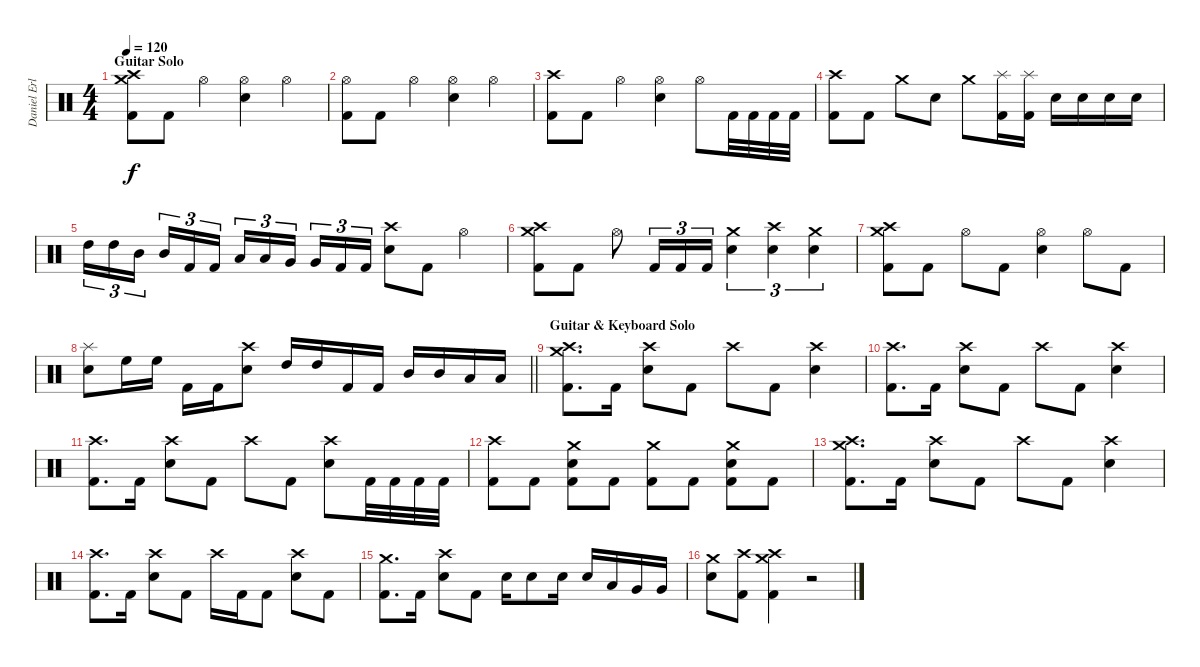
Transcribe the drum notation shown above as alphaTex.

\track ("Daniel Erlandson (Drums)" "Daniel Erl") {instrument percussion}
\staff {score}
\articulation defaults
\ts (4 4)
\section ("" "Guitar Solo")
\tempo 120
\clef neutral
\ks c
("Crash medium (hit)" "Crash high (hit)" "Kick (hit) 2").8{dy f} "Kick (hit) 2".8 "Hi-Hat (open)".4 ("Hi-Hat (open)" "Electric Snare (hit)").4 "Hi-Hat (open)".4 |
("Hi-Hat (open)" "Kick (hit) 2").8 "Kick (hit) 2".8 "Hi-Hat (open)".4 ("Hi-Hat (open)" "Electric Snare (hit)").4 "Hi-Hat (open)".4 |
("Crash high (hit)" "Kick (hit) 2").8 "Kick (hit) 2".8 "Hi-Hat (open)".4 ("Hi-Hat (open)" "Electric Snare (hit)").4 "Hi-Hat (open)".8 "Kick (hit) 2".32 "Kick (hit) 2".32 "Kick (hit) 2".32 "Kick (hit) 2".32 |
("Crash high (hit)" "Kick (hit) 2").8 "Kick (hit) 2".8 "Crash medium (hit)".8 "Electric Snare (hit)".8 "Crash medium (hit)".8 ("Splash (hit)" "Kick (hit) 2").16 ("Splash (hit)" "Kick (hit) 2").16 "Electric Snare (hit)".16 "Electric Snare (hit)".16 "Electric Snare (hit)".16 "Electric Snare (hit)".16 |
"High Tom (hit)".16{tu (3 2)} "High Tom (hit)".16{tu (3 2)} "Mid Tom (hit)".16{tu (3 2) beam splitsecondary} "Mid Tom (hit)".16{tu (3 2)} "Kick (hit) 2".16{tu (3 2)} "Kick (hit) 2".16{tu (3 2)} "Low Tom (hit)".16{tu (3 2)} "Low Tom (hit)".16{tu (3 2)} "Very Low Tom (hit)".16{tu (3 2) beam splitsecondary} "Very Low Tom (hit)".16{tu (3 2)} "Kick (hit) 2".16{tu (3 2)} "Kick (hit) 2".16{tu (3 2)} ("Crash high (hit)" "Electric Snare (hit)").8 "Kick (hit) 2".8 "Hi-Hat (open)".4 |
("Crash medium (hit)" "Crash high (hit)" "Kick (hit) 2").8 "Kick (hit) 2".8 "Hi-Hat (open)".8 "Kick (hit) 2".16{tu (3 2)} "Kick (hit) 2".16{tu (3 2)} "Kick (hit) 2".16{tu (3 2)} ("Crash medium (hit)" "Electric Snare (hit)").4{tu (3 2)} ("Crash high (hit)" "Electric Snare (hit)").4{tu (3 2)} ("Crash medium (hit)" "Electric Snare (hit)").4{tu (3 2)} |
("Crash medium (hit)" "Crash high (hit)" "Kick (hit) 2").8 "Kick (hit) 2".8 "Hi-Hat (open)".8 "Kick (hit) 2".8 ("Hi-Hat (open)" "Electric Snare (hit)").4 "Hi-Hat (open)".8 "Kick (hit) 2".8 |
\barLineRight lightlight
("Splash (hit)" "Electric Snare (hit)").8 "High Floor Tom (hit)".16 "High Floor Tom (hit)".16 "Kick (hit) 2".16 "Kick (hit) 2".16 ("Crash high (hit)" "Electric Snare (hit)").8 "High Tom (hit)".16 "High Tom (hit)".16 "Kick (hit) 2".16 "Kick (hit) 2".16 "Mid Tom (hit)".16 "Mid Tom (hit)".16 "Low Tom (hit)".16 "Low Tom (hit)".16 |
\section ("" "Guitar & Keyboard Solo")
("Crash medium (hit)" "Crash high (hit)" "Kick (hit) 2").8{d} "Kick (hit) 2".16 ("Crash high (hit)" "Electric Snare (hit)").8 "Kick (hit) 2".8 "Crash high (hit)".8 "Kick (hit) 2".8 ("Crash high (hit)" "Electric Snare (hit)").4 |
("Crash high (hit)" "Kick (hit) 2").8{d} "Kick (hit) 2".16 ("Crash high (hit)" "Electric Snare (hit)").8 "Kick (hit) 2".8 "Crash high (hit)".8 "Kick (hit) 2".8 ("Crash high (hit)" "Electric Snare (hit)").4 |
("Crash high (hit)" "Kick (hit) 2").8{d} "Kick (hit) 2".16 ("Crash high (hit)" "Electric Snare (hit)").8 "Kick (hit) 2".8 "Crash high (hit)".8 "Kick (hit) 2".8 ("Crash high (hit)" "Electric Snare (hit)").8 "Kick (hit) 2".32 "Kick (hit) 2".32 "Kick (hit) 2".32 "Kick (hit) 2".32 |
("Crash high (hit)" "Kick (hit) 2").8 "Kick (hit) 2".8 ("Crash medium (hit)" "Electric Snare (hit)" "Kick (hit) 2").8 "Kick (hit) 2".8 ("Crash medium (hit)" "Kick (hit) 2").8 "Kick (hit) 2".8 ("Crash medium (hit)" "Electric Snare (hit)" "Kick (hit) 2").8 "Kick (hit) 2".8 |
("Crash medium (hit)" "Crash high (hit)" "Kick (hit) 2").8{d} "Kick (hit) 2".16 ("Crash high (hit)" "Electric Snare (hit)").8 "Kick (hit) 2".8 "Crash high (hit)".8 "Kick (hit) 2".8 ("Crash high (hit)" "Electric Snare (hit)").4 |
("Crash high (hit)" "Kick (hit) 2").8{d} "Kick (hit) 2".16 ("Crash high (hit)" "Electric Snare (hit)").8 "Kick (hit) 2".8 "Crash high (hit)".16 "Kick (hit) 2".16 "Kick (hit) 2".8 ("Crash high (hit)" "Electric Snare (hit)").8 "Kick (hit) 2".8 |
("Crash medium (hit)" "Kick (hit) 2").8{d} "Kick (hit) 2".16 ("Crash high (hit)" "Electric Snare (hit)").8 "Kick (hit) 2".8 "Electric Snare (hit)".16 "Electric Snare (hit)".8 "Electric Snare (hit)".16 "Electric Snare (hit)".16 "Low Tom (hit)".16 "Very Low Tom (hit)".16 "Very Low Tom (hit)".16 |
("Crash medium (hit)" "Electric Snare (hit)").8 ("Crash high (hit)" "Kick (hit) 2").8 ("Crash medium (hit)" "Crash high (hit)" "Kick (hit) 2").4 r.2
